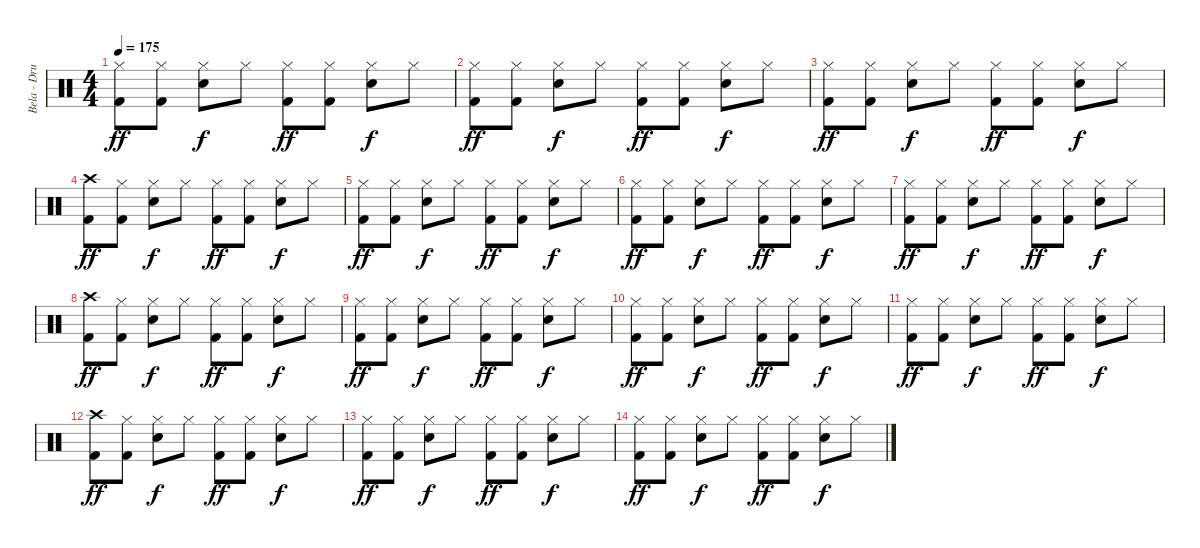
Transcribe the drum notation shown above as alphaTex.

\track ("Bela - Drums" "Bela - Dru") {instrument percussion}
\staff {score}
\articulation defaults
\ts (4 4)
\tempo 175
\clef neutral
\ks c
("Hi-Hat (closed)" "Kick (hit) 2").8{dy ff} ("Hi-Hat (closed)" "Kick (hit) 2").8 ("Hi-Hat (closed)" "Electric Snare (hit)").8{dy f} "Hi-Hat (closed)".8 ("Hi-Hat (closed)" "Kick (hit) 2").8{dy ff} ("Hi-Hat (closed)" "Kick (hit) 2").8 ("Hi-Hat (closed)" "Electric Snare (hit)").8{dy f} "Hi-Hat (closed)".8 |
("Hi-Hat (closed)" "Kick (hit) 2").8{dy ff} ("Hi-Hat (closed)" "Kick (hit) 2").8 ("Hi-Hat (closed)" "Electric Snare (hit)").8{dy f} "Hi-Hat (closed)".8 ("Hi-Hat (closed)" "Kick (hit) 2").8{dy ff} ("Hi-Hat (closed)" "Kick (hit) 2").8 ("Hi-Hat (closed)" "Electric Snare (hit)").8{dy f} "Hi-Hat (closed)".8 |
("Hi-Hat (closed)" "Kick (hit) 2").8{dy ff} ("Hi-Hat (closed)" "Kick (hit) 2").8 ("Hi-Hat (closed)" "Electric Snare (hit)").8{dy f} "Hi-Hat (closed)".8 ("Hi-Hat (closed)" "Kick (hit) 2").8{dy ff} ("Hi-Hat (closed)" "Kick (hit) 2").8 ("Hi-Hat (closed)" "Electric Snare (hit)").8{dy f} "Hi-Hat (closed)".8 |
("Crash high (hit)" "Kick (hit) 2").8{dy ff} ("Hi-Hat (closed)" "Kick (hit) 2").8 ("Hi-Hat (closed)" "Electric Snare (hit)").8{dy f} "Hi-Hat (closed)".8 ("Hi-Hat (closed)" "Kick (hit) 2").8{dy ff} ("Hi-Hat (closed)" "Kick (hit) 2").8 ("Hi-Hat (closed)" "Electric Snare (hit)").8{dy f} "Hi-Hat (closed)".8 |
("Hi-Hat (closed)" "Kick (hit) 2").8{dy ff} ("Hi-Hat (closed)" "Kick (hit) 2").8 ("Hi-Hat (closed)" "Electric Snare (hit)").8{dy f} "Hi-Hat (closed)".8 ("Hi-Hat (closed)" "Kick (hit) 2").8{dy ff} ("Hi-Hat (closed)" "Kick (hit) 2").8 ("Hi-Hat (closed)" "Electric Snare (hit)").8{dy f} "Hi-Hat (closed)".8 |
("Hi-Hat (closed)" "Kick (hit) 2").8{dy ff} ("Hi-Hat (closed)" "Kick (hit) 2").8 ("Hi-Hat (closed)" "Electric Snare (hit)").8{dy f} "Hi-Hat (closed)".8 ("Hi-Hat (closed)" "Kick (hit) 2").8{dy ff} ("Hi-Hat (closed)" "Kick (hit) 2").8 ("Hi-Hat (closed)" "Electric Snare (hit)").8{dy f} "Hi-Hat (closed)".8 |
("Hi-Hat (closed)" "Kick (hit) 2").8{dy ff} ("Hi-Hat (closed)" "Kick (hit) 2").8 ("Hi-Hat (closed)" "Electric Snare (hit)").8{dy f} "Hi-Hat (closed)".8 ("Hi-Hat (closed)" "Kick (hit) 2").8{dy ff} ("Hi-Hat (closed)" "Kick (hit) 2").8 ("Hi-Hat (closed)" "Electric Snare (hit)").8{dy f} "Hi-Hat (closed)".8 |
("Crash high (hit)" "Kick (hit) 2").8{dy ff} ("Hi-Hat (closed)" "Kick (hit) 2").8 ("Hi-Hat (closed)" "Electric Snare (hit)").8{dy f} "Hi-Hat (closed)".8 ("Hi-Hat (closed)" "Kick (hit) 2").8{dy ff} ("Hi-Hat (closed)" "Kick (hit) 2").8 ("Hi-Hat (closed)" "Electric Snare (hit)").8{dy f} "Hi-Hat (closed)".8 |
("Hi-Hat (closed)" "Kick (hit) 2").8{dy ff} ("Hi-Hat (closed)" "Kick (hit) 2").8 ("Hi-Hat (closed)" "Electric Snare (hit)").8{dy f} "Hi-Hat (closed)".8 ("Hi-Hat (closed)" "Kick (hit) 2").8{dy ff} ("Hi-Hat (closed)" "Kick (hit) 2").8 ("Hi-Hat (closed)" "Electric Snare (hit)").8{dy f} "Hi-Hat (closed)".8 |
("Hi-Hat (closed)" "Kick (hit) 2").8{dy ff} ("Hi-Hat (closed)" "Kick (hit) 2").8 ("Hi-Hat (closed)" "Electric Snare (hit)").8{dy f} "Hi-Hat (closed)".8 ("Hi-Hat (closed)" "Kick (hit) 2").8{dy ff} ("Hi-Hat (closed)" "Kick (hit) 2").8 ("Hi-Hat (closed)" "Electric Snare (hit)").8{dy f} "Hi-Hat (closed)".8 |
("Hi-Hat (closed)" "Kick (hit) 2").8{dy ff} ("Hi-Hat (closed)" "Kick (hit) 2").8 ("Hi-Hat (closed)" "Electric Snare (hit)").8{dy f} "Hi-Hat (closed)".8 ("Hi-Hat (closed)" "Kick (hit) 2").8{dy ff} ("Hi-Hat (closed)" "Kick (hit) 2").8 ("Hi-Hat (closed)" "Electric Snare (hit)").8{dy f} "Hi-Hat (closed)".8 |
("Crash high (hit)" "Kick (hit) 2").8{dy ff} ("Hi-Hat (closed)" "Kick (hit) 2").8 ("Hi-Hat (closed)" "Electric Snare (hit)").8{dy f} "Hi-Hat (closed)".8 ("Hi-Hat (closed)" "Kick (hit) 2").8{dy ff} ("Hi-Hat (closed)" "Kick (hit) 2").8 ("Hi-Hat (closed)" "Electric Snare (hit)").8{dy f} "Hi-Hat (closed)".8 |
("Hi-Hat (closed)" "Kick (hit) 2").8{dy ff} ("Hi-Hat (closed)" "Kick (hit) 2").8 ("Hi-Hat (closed)" "Electric Snare (hit)").8{dy f} "Hi-Hat (closed)".8 ("Hi-Hat (closed)" "Kick (hit) 2").8{dy ff} ("Hi-Hat (closed)" "Kick (hit) 2").8 ("Hi-Hat (closed)" "Electric Snare (hit)").8{dy f} "Hi-Hat (closed)".8 |
("Hi-Hat (closed)" "Kick (hit) 2").8{dy ff} ("Hi-Hat (closed)" "Kick (hit) 2").8 ("Hi-Hat (closed)" "Electric Snare (hit)").8{dy f} "Hi-Hat (closed)".8 ("Hi-Hat (closed)" "Kick (hit) 2").8{dy ff} ("Hi-Hat (closed)" "Kick (hit) 2").8 ("Hi-Hat (closed)" "Electric Snare (hit)").8{dy f} "Hi-Hat (closed)".8
